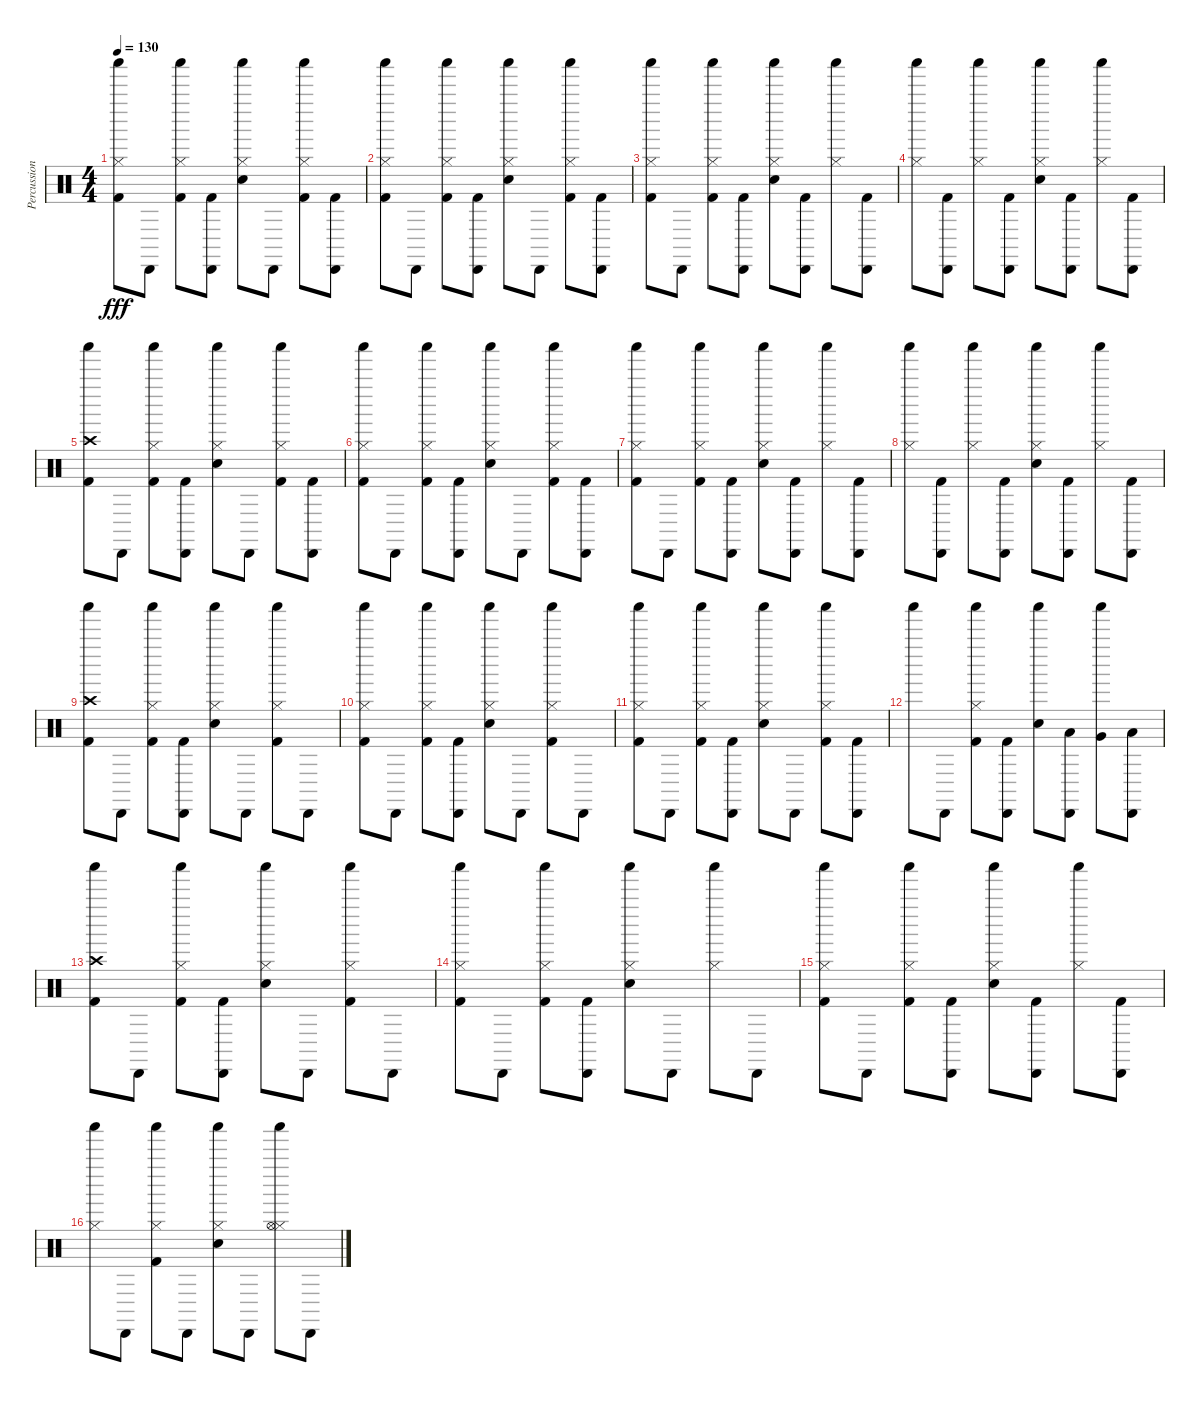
\track ("Percussion" "Percussion") {instrument percussion}
\staff {score}
\articulation defaults
\ts (4 4)
\tempo 130
\clef neutral
\ks c
("Shaker (hit)" "Hi-Hat (closed)" "Kick (hit) 2").8{dy fff} "Cabasa (hit)".8 ("Shaker (hit)" "Hi-Hat (closed)" "Kick (hit) 2").8 ("Cabasa (hit)" "Kick (hit) 2").8 ("Shaker (hit)" "Hi-Hat (closed)" "Snare (hit) 2").8 "Cabasa (hit)".8 ("Shaker (hit)" "Hi-Hat (closed)" "Kick (hit) 2").8 ("Cabasa (hit)" "Kick (hit) 2").8 |
("Shaker (hit)" "Hi-Hat (closed)" "Kick (hit) 2").8 "Cabasa (hit)".8 ("Shaker (hit)" "Hi-Hat (closed)" "Kick (hit) 2").8 ("Cabasa (hit)" "Kick (hit) 2").8 ("Shaker (hit)" "Hi-Hat (closed)" "Snare (hit) 2").8 "Cabasa (hit)".8 ("Shaker (hit)" "Hi-Hat (closed)" "Kick (hit) 2").8 ("Cabasa (hit)" "Kick (hit) 2").8 |
("Shaker (hit)" "Hi-Hat (closed)" "Kick (hit) 2").8 "Cabasa (hit)".8 ("Shaker (hit)" "Hi-Hat (closed)" "Kick (hit) 2").8 ("Cabasa (hit)" "Kick (hit) 2").8 ("Shaker (hit)" "Hi-Hat (closed)" "Snare (hit) 2").8 ("Cabasa (hit)" "Kick (hit) 2").8 ("Shaker (hit)" "Hi-Hat (closed)").8 ("Cabasa (hit)" "Kick (hit) 2").8 |
("Shaker (hit)" "Hi-Hat (closed)").8 ("Cabasa (hit)" "Kick (hit) 2").8 ("Shaker (hit)" "Hi-Hat (closed)").8 ("Cabasa (hit)" "Kick (hit) 2").8 ("Shaker (hit)" "Hi-Hat (closed)" "Snare (hit) 2").8 ("Cabasa (hit)" "Kick (hit) 2").8 ("Shaker (hit)" "Hi-Hat (closed)").8 ("Cabasa (hit)" "Kick (hit) 2").8 |
("Shaker (hit)" "Crash high (hit)" "Kick (hit) 2").8 "Cabasa (hit)".8 ("Shaker (hit)" "Hi-Hat (closed)" "Kick (hit) 2").8 ("Cabasa (hit)" "Kick (hit) 2").8 ("Shaker (hit)" "Hi-Hat (closed)" "Snare (hit) 2").8 "Cabasa (hit)".8 ("Shaker (hit)" "Hi-Hat (closed)" "Kick (hit) 2").8 ("Cabasa (hit)" "Kick (hit) 2").8 |
("Shaker (hit)" "Hi-Hat (closed)" "Kick (hit) 2").8 "Cabasa (hit)".8 ("Shaker (hit)" "Hi-Hat (closed)" "Kick (hit) 2").8 ("Cabasa (hit)" "Kick (hit) 2").8 ("Shaker (hit)" "Hi-Hat (closed)" "Snare (hit) 2").8 "Cabasa (hit)".8 ("Shaker (hit)" "Hi-Hat (closed)" "Kick (hit) 2").8 ("Cabasa (hit)" "Kick (hit) 2").8 |
("Shaker (hit)" "Hi-Hat (closed)" "Kick (hit) 2").8 "Cabasa (hit)".8 ("Shaker (hit)" "Hi-Hat (closed)" "Kick (hit) 2").8 ("Cabasa (hit)" "Kick (hit) 2").8 ("Shaker (hit)" "Hi-Hat (closed)" "Snare (hit) 2").8 ("Cabasa (hit)" "Kick (hit) 2").8 ("Shaker (hit)" "Hi-Hat (closed)").8 ("Cabasa (hit)" "Kick (hit) 2").8 |
("Shaker (hit)" "Hi-Hat (closed)").8 ("Cabasa (hit)" "Kick (hit) 2").8 ("Shaker (hit)" "Hi-Hat (closed)").8 ("Cabasa (hit)" "Kick (hit) 2").8 ("Shaker (hit)" "Hi-Hat (closed)" "Snare (hit) 2").8 ("Cabasa (hit)" "Kick (hit) 2").8 ("Shaker (hit)" "Hi-Hat (closed)").8 ("Cabasa (hit)" "Kick (hit) 2").8 |
("Shaker (hit)" "Crash high (hit)" "Kick (hit) 2").8 "Cabasa (hit)".8 ("Shaker (hit)" "Hi-Hat (closed)" "Kick (hit) 2").8 ("Cabasa (hit)" "Kick (hit) 2").8 ("Shaker (hit)" "Hi-Hat (closed)" "Snare (hit) 2").8 "Cabasa (hit)".8 ("Shaker (hit)" "Hi-Hat (closed)" "Kick (hit) 2").8 "Cabasa (hit)".8 |
("Shaker (hit)" "Hi-Hat (closed)" "Kick (hit) 2").8 "Cabasa (hit)".8 ("Shaker (hit)" "Hi-Hat (closed)" "Kick (hit) 2").8 ("Cabasa (hit)" "Kick (hit) 2").8 ("Shaker (hit)" "Hi-Hat (closed)" "Snare (hit) 2").8 "Cabasa (hit)".8 ("Shaker (hit)" "Hi-Hat (closed)" "Kick (hit) 2").8 "Cabasa (hit)".8 |
("Shaker (hit)" "Hi-Hat (closed)" "Kick (hit) 2").8 "Cabasa (hit)".8 ("Shaker (hit)" "Hi-Hat (closed)" "Kick (hit) 2").8 ("Cabasa (hit)" "Kick (hit) 2").8 ("Shaker (hit)" "Hi-Hat (closed)" "Snare (hit) 2").8 "Cabasa (hit)".8 ("Shaker (hit)" "Hi-Hat (closed)" "Kick (hit) 2").8 ("Cabasa (hit)" "Kick (hit) 2").8 |
"Shaker (hit)".8 "Cabasa (hit)".8 ("Shaker (hit)" "Hi-Hat (closed)" "Kick (hit) 2").8 ("Cabasa (hit)" "Kick (hit) 2").8 ("Shaker (hit)" "Snare (hit) 2").8 ("Cabasa (hit)" "Low Tom (hit)").8 ("Shaker (hit)" "Very Low Tom (hit)").8 ("Cabasa (hit)" "Low Floor Tom (hit)").8 |
("Shaker (hit)" "Crash high (hit)" "Kick (hit) 2").8 "Cabasa (hit)".8 ("Shaker (hit)" "Hi-Hat (closed)" "Kick (hit) 2").8 ("Cabasa (hit)" "Kick (hit) 2").8 ("Shaker (hit)" "Hi-Hat (closed)" "Snare (hit) 2").8 "Cabasa (hit)".8 ("Shaker (hit)" "Hi-Hat (closed)" "Kick (hit) 2").8 "Cabasa (hit)".8 |
("Shaker (hit)" "Hi-Hat (closed)" "Kick (hit) 2").8 "Cabasa (hit)".8 ("Shaker (hit)" "Hi-Hat (closed)" "Kick (hit) 2").8 ("Cabasa (hit)" "Kick (hit) 2").8 ("Shaker (hit)" "Hi-Hat (closed)" "Snare (hit) 2").8 "Cabasa (hit)".8 ("Shaker (hit)" "Hi-Hat (closed)").8 "Cabasa (hit)".8 |
("Shaker (hit)" "Hi-Hat (closed)" "Kick (hit) 2").8 "Cabasa (hit)".8 ("Shaker (hit)" "Hi-Hat (closed)" "Kick (hit) 2").8 ("Cabasa (hit)" "Kick (hit) 2").8 ("Shaker (hit)" "Hi-Hat (closed)" "Snare (hit) 2").8 ("Cabasa (hit)" "Kick (hit) 2").8 ("Shaker (hit)" "Hi-Hat (closed)").8 ("Cabasa (hit)" "Kick (hit) 2").8 |
("Shaker (hit)" "Hi-Hat (closed)").8 "Cabasa (hit)".8 ("Shaker (hit)" "Hi-Hat (closed)" "Kick (hit) 2").8 "Cabasa (hit)".8 ("Shaker (hit)" "Hi-Hat (closed)" "Snare (hit) 2").8 "Cabasa (hit)".8 ("Shaker (hit)" "Hi-Hat (closed)" "Hi-Hat (open)").8 "Cabasa (hit)".8
